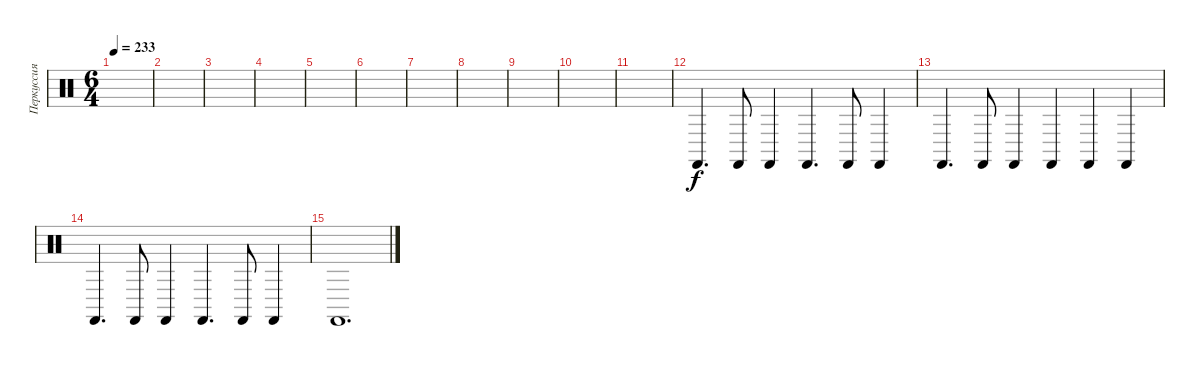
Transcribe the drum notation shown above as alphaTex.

\track ("Перкуссия" "Перкуссия") {instrument percussion}
\staff {score}
\articulation defaults
\ts (6 4)
\tempo 233
\clef neutral
\ks c
|
|
|
|
|
|
|
|
|
|
|
"Castanets (hit)".4{d dy f volume 15} "Castanets (hit)".8 "Castanets (hit)".4 "Castanets (hit)".4{d} "Castanets (hit)".8 "Castanets (hit)".4 |
"Castanets (hit)".4{d} "Castanets (hit)".8 "Castanets (hit)".4 "Castanets (hit)".4 "Castanets (hit)".4 "Castanets (hit)".4 |
"Castanets (hit)".4{d} "Castanets (hit)".8 "Castanets (hit)".4 "Castanets (hit)".4{d} "Castanets (hit)".8 "Castanets (hit)".4 |
"Castanets (hit)".1{d}
